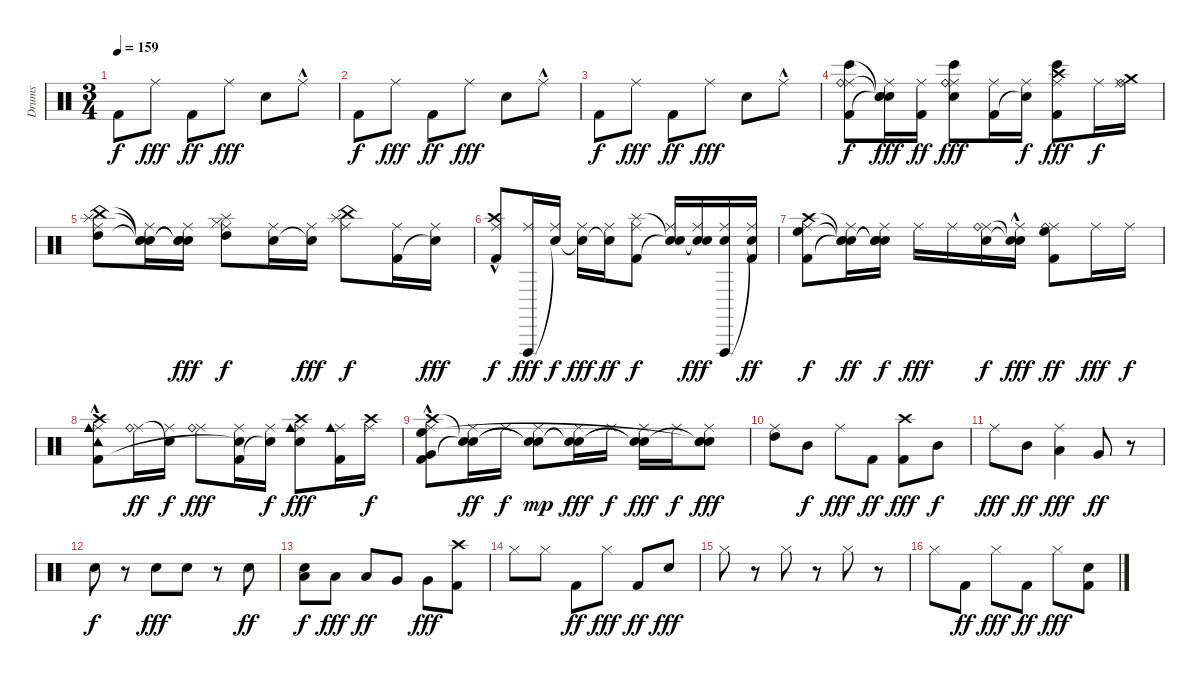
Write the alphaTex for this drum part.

\track ("Drums" "Drums") {instrument percussion}
\staff {score}
\articulation defaults
\ts (3 4)
\tempo 159
\clef neutral
\ks c "Kick (hit) 2".8{dy f} "Ride (middle)".8{dy fff} "Kick (hit) 2".8{dy ff} "Ride (middle)".8{dy fff} "Snare (hit) 2".8 "Ride (middle)"{hac}.8
|
"Kick (hit) 2".8{dy f} "Ride (middle)".8{dy fff} "Kick (hit) 2".8{dy ff} "Ride (middle)".8{dy fff} "Snare (hit) 2".8 "Ride (middle)"{hac}.8 |
"Kick (hit) 2".8{dy f} "Ride (middle)".8{dy fff} "Kick (hit) 2".8{dy ff} "Ride (middle)".8{dy fff} "Snare (hit) 2".8 "Ride (middle)"{hac}.8 |
("Ride (middle)" "Kick (hit) 2" "Bongo High (hit)" "Ride (bell)").8{dy f} ("Ride (middle)" "Snare (hit)"{t} "Snare (hit)"{t} "Snare (hit)"{t}).16{dy fff} ("Ride (middle)" "Kick (hit) 2").16{dy ff} ("Ride (middle)" "Snare (hit) 2" "Bongo High (hit)" "Ride (bell)").8{dy fff} ("Ride (middle)" "Kick (hit) 2").16 ("Ride (middle)" "Snare (hit)"{t}).16{dy f} ("Ride (middle)" "Kick (hit) 2" "Bongo High (hit)" "Crash high (hit)").8{dy fff} "Ride (middle)".16{dy f} ("Ride (middle)" "Ride (bell)" "Crash medium (hit)").16 |
("Ride (middle)" "High Tom (hit)" "China (hit)" "Splash (hit)").8 ("Ride (middle)" "Snare (hit)"{t} "Snare (hit)"{t} "Snare (hit)"{t}).16 ("Ride (middle)" "Snare (hit)"{t} "Snare (hit)"{t} "Snare (hit)"{t}).16{dy fff} ("Ride (middle)" "High Tom (hit)" "Hi-Hat (closed)" "Splash (hit)").8{dy f} ("Ride (middle)" "Snare (hit) 2").16 ("Ride (middle)" "Snare (hit)"{t}).16{dy fff} ("Ride (middle)" "China (hit)" "Splash (hit)").8{dy f} ("Ride (middle)" "Kick (hit) 2").16 ("Ride (middle)" "Snare (hit)"{t}).16{dy fff} |
("Ride (middle)"{hac} "Crash high (hit)" "Kick (hit) 2").8{dy f} ("Ride (middle)" "Vibraslap (hit)").16{dy fff} ("Ride (middle)" "Snare (hit)"{t}).16{dy f} ("Ride (middle)" "Snare (hit)"{t}).16{dy fff} ("Ride (middle)" "Snare (hit)"{t}).16{dy ff} ("Ride (middle)" "Splash (hit)" "Kick (hit) 2").8{dy f} ("Ride (middle)" "Snare (hit)"{t} "Snare (hit)"{t}).16 ("Ride (middle)" "Snare (hit)"{t} "Snare (hit)"{t}).16{dy fff} ("Ride (middle)" "Snare (hit) 2" "Vibraslap (hit)").16 ("Ride (middle)" "Kick (hit) 2" "Snare (hit)"{t}).16{dy ff} |
("Ride (middle)" "Crash high (hit)" "Kick (hit) 2" "High Floor Tom (hit)").8{dy f} ("Ride (middle)" "Snare (hit)"{t} "Snare (hit)"{t} "Snare (hit)"{t}).16{dy ff} ("Ride (middle)" "Snare (hit)"{t} "Snare (hit)"{t} "Snare (hit)"{t}).16{dy f} "Ride (middle)".16{dy fff} "Ride (middle)".16 ("Ride (middle)" "Ride (bell)" "Snare (hit) 2").16{dy f} ("Ride (middle)"{hac} "Snare (hit) 2"{t} "Snare (hit)"{t}).16{dy fff} ("Ride (middle)" "Kick (hit) 2" "Ride (bell)" "High Floor Tom (hit)").8{dy ff} "Ride (middle)".16{dy fff} "Ride (middle)".16{dy f} |
("Ride (middle)" "Crash high (hit)" "Kick (hit) 2"{hac} "Tambourine (hit)" "Cowbell medium (hit)").8 ("Ride (middle)" "Ride (bell)").16{dy ff} ("Ride (middle)" "Snare (hit)"{t}).16{dy f} ("Ride (middle)" "Ride (bell)").8{dy fff} ("Ride (middle)" "Kick (hit) 2" "Snare (hit)"{t}).16 ("Ride (middle)" "Snare (hit)"{t}).16{dy f} ("Ride (middle)" "Snare (hit) 2" "Cowbell medium (hit)" "Crash high (hit)").8{dy fff} ("Ride (middle)" "Kick (hit) 2" "Cowbell medium (hit)").16 ("Ride (middle)" "Crash high (hit)").16{dy f} |
("Ride (middle)"{hac} "Kick (hit) 2" "Crash high (hit)" "High Floor Tom (hit)" "Very Low Tom (hit)").8 ("Ride (middle)" "Snare (hit)"{t} "Snare (hit)"{t}).16{dy ff} "Ride (middle)".16{dy f} ("Ride (middle)" "Snare (hit)"{t} "Snare (hit)"{t}).8{dy mp} ("Ride (middle)" "Snare (hit)"{t} "Snare (hit)"{t}).16{dy fff} "Ride (middle)".16{dy f} ("Ride (middle)" "Snare (hit)"{t} "Snare (hit)"{t}).16{dy fff} "Ride (middle)".16{dy f} ("Ride (middle)" "Snare (hit) 2" "Snare (hit)"{t} "Snare (hit)"{t}).8{dy fff} |
("Ride (middle)" "High Tom (hit)").8 "Mid Tom (hit)".8{dy f} "Ride (middle)".8{dy fff} "Kick (hit) 2".8{dy ff} ("Kick (hit) 2" "Crash high (hit)").8{dy fff} "Mid Tom (hit)".8{dy f} |
"Ride (middle)".8{dy fff} "Mid Tom (hit)".8{dy ff} ("Low Tom (hit)" "Ride (middle)").4{dy fff} "Very Low Tom (hit)".8{dy ff} r.8 |
"Snare (hit) 2".8{dy f} r.8 "Snare (hit) 2".8{dy fff} "Snare (hit) 2".8 r.8 "Snare (hit) 2".8{dy ff} |
("Snare (hit) 2" "Low Tom (hit)").8{dy f} "Low Tom (hit)".8{dy fff} "Low Tom (hit)".8{dy ff} "Very Low Tom (hit)".8 "Very Low Tom (hit)".8{dy fff} ("Kick (hit) 2" "Crash high (hit)").8 |
"Hi-Hat (closed)".8 "Hi-Hat (closed)".8 "Kick (hit) 2".8{dy ff} "Hi-Hat (closed)".8{dy fff} "Kick (hit) 2".8{dy ff} "Snare (hit) 2".8{dy fff} |
"Hi-Hat (closed)".8 r.8 "Hi-Hat (closed)".8 r.8 "Hi-Hat (closed)".8 r.8 |
"Hi-Hat (closed)".8 "Kick (hit) 2".8{dy ff} "Hi-Hat (closed)".8{dy fff} "Kick (hit) 2".8{dy ff} "Hi-Hat (closed)".8{dy fff} ("Snare (hit) 2" "Kick (hit) 2").8
